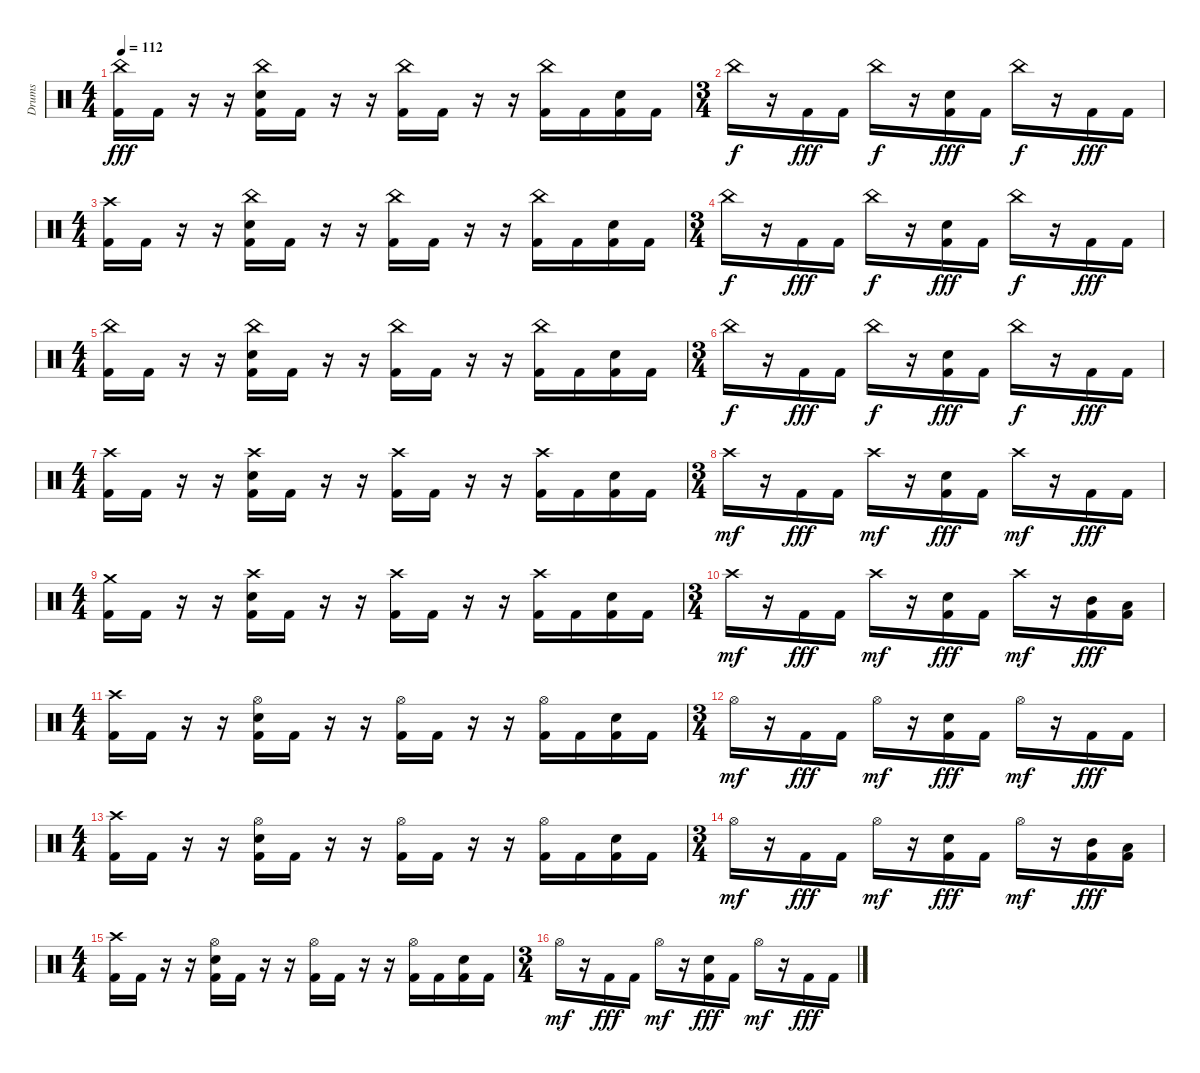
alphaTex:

\track ("Drums" "Drums") {instrument percussion}
\staff
\articulation defaults
\ts (4 4)
\tempo 112
\clef neutral
\ks c
("China (hit)" "Kick (hit) 2").16{dy fff} "Kick (hit) 2".16 r.16 r.16 ("China (hit)" "Electric Snare (hit)" "Kick (hit) 2").16 "Kick (hit) 2".16 r.16 r.16 ("China (hit)" "Kick (hit) 2").16 "Kick (hit) 2".16 r.16 r.16 ("China (hit)" "Kick (hit) 2").16 "Kick (hit) 2".16 ("Electric Snare (hit)" "Kick (hit) 2").16 "Kick (hit) 2".16 |
\ts (3 4)
"China (hit)".16{dy f} r.16 "Kick (hit) 2".16{dy fff} "Kick (hit) 2".16 "China (hit)".16{dy f} r.16 ("Electric Snare (hit)" "Kick (hit) 2").16{dy fff} "Kick (hit) 2".16 "China (hit)".16{dy f} r.16 "Kick (hit) 2".16{dy fff} "Kick (hit) 2".16 |
\ts (4 4)
("Crash high (hit)" "Kick (hit) 2").16 "Kick (hit) 2".16 r.16 r.16 ("China (hit)" "Electric Snare (hit)" "Kick (hit) 2").16 "Kick (hit) 2".16 r.16 r.16 ("China (hit)" "Kick (hit) 2").16 "Kick (hit) 2".16 r.16 r.16 ("China (hit)" "Kick (hit) 2").16 "Kick (hit) 2".16 ("Electric Snare (hit)" "Kick (hit) 2").16 "Kick (hit) 2".16 |
\ts (3 4)
"China (hit)".16{dy f} r.16 "Kick (hit) 2".16{dy fff} "Kick (hit) 2".16 "China (hit)".16{dy f} r.16 ("Electric Snare (hit)" "Kick (hit) 2").16{dy fff} "Kick (hit) 2".16 "China (hit)".16{dy f} r.16 "Kick (hit) 2".16{dy fff} "Kick (hit) 2".16 |
\ts (4 4)
("China (hit)" "Kick (hit) 2").16 "Kick (hit) 2".16 r.16 r.16 ("China (hit)" "Electric Snare (hit)" "Kick (hit) 2").16 "Kick (hit) 2".16 r.16 r.16 ("China (hit)" "Kick (hit) 2").16 "Kick (hit) 2".16 r.16 r.16 ("China (hit)" "Kick (hit) 2").16 "Kick (hit) 2".16 ("Electric Snare (hit)" "Kick (hit) 2").16 "Kick (hit) 2".16 |
\ts (3 4)
"China (hit)".16{dy f} r.16 "Kick (hit) 2".16{dy fff} "Kick (hit) 2".16 "China (hit)".16{dy f} r.16 ("Electric Snare (hit)" "Kick (hit) 2").16{dy fff} "Kick (hit) 2".16 "China (hit)".16{dy f} r.16 "Kick (hit) 2".16{dy fff} "Kick (hit) 2".16 |
\ts (4 4)
("Crash high (hit)" "Kick (hit) 2").16 "Kick (hit) 2".16 r.16 r.16 ("Crash high (hit)" "Electric Snare (hit)" "Kick (hit) 2").16 "Kick (hit) 2".16 r.16 r.16 ("Crash high (hit)" "Kick (hit) 2").16 "Kick (hit) 2".16 r.16 r.16 ("Crash high (hit)" "Kick (hit) 2").16 "Kick (hit) 2".16 ("Electric Snare (hit)" "Kick (hit) 2").16 "Kick (hit) 2".16 |
\ts (3 4)
"Crash high (hit)".16{dy mf} r.16 "Kick (hit) 2".16{dy fff} "Kick (hit) 2".16 "Crash high (hit)".16{dy mf} r.16 ("Electric Snare (hit)" "Kick (hit) 2").16{dy fff} "Kick (hit) 2".16 "Crash high (hit)".16{dy mf} r.16 "Kick (hit) 2".16{dy fff} "Kick (hit) 2".16 |
\ts (4 4)
("Crash medium (hit)" "Kick (hit) 2").16 "Kick (hit) 2".16 r.16 r.16 ("Crash high (hit)" "Electric Snare (hit)" "Kick (hit) 2").16 "Kick (hit) 2".16 r.16 r.16 ("Crash high (hit)" "Kick (hit) 2").16 "Kick (hit) 2".16 r.16 r.16 ("Crash high (hit)" "Kick (hit) 2").16 "Kick (hit) 2".16 ("Electric Snare (hit)" "Kick (hit) 2").16 "Kick (hit) 2".16 |
\ts (3 4)
"Crash high (hit)".16{dy mf} r.16 "Kick (hit) 2".16{dy fff} "Kick (hit) 2".16 "Crash high (hit)".16{dy mf} r.16 ("Electric Snare (hit)" "Kick (hit) 2").16{dy fff} "Kick (hit) 2".16 "Crash high (hit)".16{dy mf} r.16 ("Mid Tom (hit)" "Kick (hit) 2").16{dy fff} ("Low Tom (hit)" "Kick (hit) 2").16 |
\ts (4 4)
("Crash high (hit)" "Kick (hit) 2").16 "Kick (hit) 2".16 r.16 r.16 ("Hi-Hat (open)" "Electric Snare (hit)" "Kick (hit) 2").16 "Kick (hit) 2".16 r.16 r.16 ("Hi-Hat (open)" "Kick (hit) 2").16 "Kick (hit) 2".16 r.16 r.16 ("Hi-Hat (open)" "Kick (hit) 2").16 "Kick (hit) 2".16 ("Electric Snare (hit)" "Kick (hit) 2").16 "Kick (hit) 2".16 |
\ts (3 4)
"Hi-Hat (open)".16{dy mf} r.16 "Kick (hit) 2".16{dy fff} "Kick (hit) 2".16 "Hi-Hat (open)".16{dy mf} r.16 ("Electric Snare (hit)" "Kick (hit) 2").16{dy fff} "Kick (hit) 2".16 "Hi-Hat (open)".16{dy mf} r.16 "Kick (hit) 2".16{dy fff} "Kick (hit) 2".16 |
\ts (4 4)
("Crash high (hit)" "Kick (hit) 2").16 "Kick (hit) 2".16 r.16 r.16 ("Hi-Hat (open)" "Electric Snare (hit)" "Kick (hit) 2").16 "Kick (hit) 2".16 r.16 r.16 ("Hi-Hat (open)" "Kick (hit) 2").16 "Kick (hit) 2".16 r.16 r.16 ("Hi-Hat (open)" "Kick (hit) 2").16 "Kick (hit) 2".16 ("Electric Snare (hit)" "Kick (hit) 2").16 "Kick (hit) 2".16 |
\ts (3 4)
"Hi-Hat (open)".16{dy mf} r.16 "Kick (hit) 2".16{dy fff} "Kick (hit) 2".16 "Hi-Hat (open)".16{dy mf} r.16 ("Electric Snare (hit)" "Kick (hit) 2").16{dy fff} "Kick (hit) 2".16 "Hi-Hat (open)".16{dy mf} r.16 ("Mid Tom (hit)" "Kick (hit) 2").16{dy fff} ("Low Tom (hit)" "Kick (hit) 2").16 |
\ts (4 4)
("Crash high (hit)" "Kick (hit) 2").16 "Kick (hit) 2".16 r.16 r.16 ("Hi-Hat (open)" "Electric Snare (hit)" "Kick (hit) 2").16 "Kick (hit) 2".16 r.16 r.16 ("Hi-Hat (open)" "Kick (hit) 2").16 "Kick (hit) 2".16 r.16 r.16 ("Hi-Hat (open)" "Kick (hit) 2").16 "Kick (hit) 2".16 ("Electric Snare (hit)" "Kick (hit) 2").16 "Kick (hit) 2".16 |
\ts (3 4)
"Hi-Hat (open)".16{dy mf} r.16 "Kick (hit) 2".16{dy fff} "Kick (hit) 2".16 "Hi-Hat (open)".16{dy mf} r.16 ("Electric Snare (hit)" "Kick (hit) 2").16{dy fff} "Kick (hit) 2".16 "Hi-Hat (open)".16{dy mf} r.16 "Kick (hit) 2".16{dy fff} "Kick (hit) 2".16
